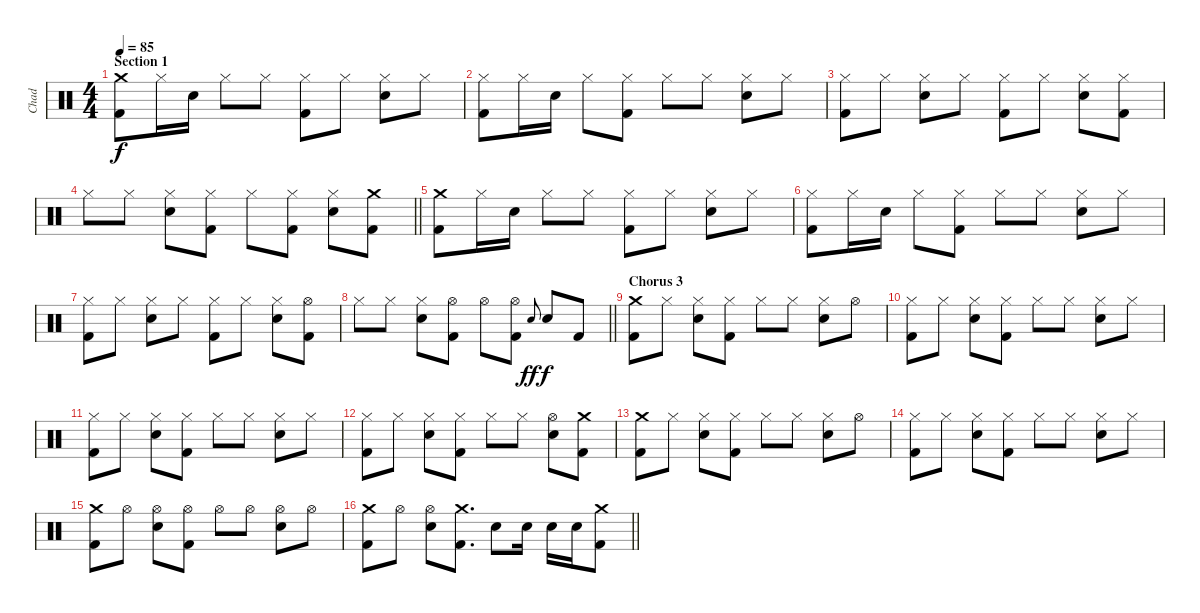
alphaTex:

\track ("Chad" "Chad") {instrument percussion}
\staff {score}
\articulation defaults
\ts (4 4)
\section ("" "Section 1")
\tempo 85
\clef neutral
\ks c
("Crash medium (hit)" "Kick (hit) 2").8{dy f} "Hi-Hat (closed)".16 "Electric Snare (hit)".16 "Hi-Hat (closed)".8 "Hi-Hat (closed)".8 ("Hi-Hat (closed)" "Kick (hit) 2").8 "Hi-Hat (closed)".8 ("Electric Snare (hit)" "Hi-Hat (closed)").8 "Hi-Hat (closed)".8 |
("Hi-Hat (closed)" "Kick (hit) 2").8 "Hi-Hat (closed)".16 "Electric Snare (hit)".16 "Hi-Hat (closed)".8 ("Hi-Hat (closed)" "Kick (hit) 2").8 "Hi-Hat (closed)".8 "Hi-Hat (closed)".8 ("Electric Snare (hit)" "Hi-Hat (closed)").8 "Hi-Hat (closed)".8 |
("Hi-Hat (closed)" "Kick (hit) 2").8 "Hi-Hat (closed)".8 ("Electric Snare (hit)" "Hi-Hat (closed)").8 "Hi-Hat (closed)".8 ("Hi-Hat (closed)" "Kick (hit) 2").8 "Hi-Hat (closed)".8 ("Electric Snare (hit)" "Hi-Hat (closed)").8 ("Hi-Hat (closed)" "Kick (hit) 2").8 |
\barLineRight lightlight "Hi-Hat (closed)".8 "Hi-Hat (closed)".8
("Electric Snare (hit)" "Hi-Hat (closed)").8 ("Hi-Hat (closed)" "Kick (hit) 2").8 "Hi-Hat (closed)".8 ("Hi-Hat (closed)" "Kick (hit) 2").8 ("Electric Snare (hit)" "Hi-Hat (closed)").8 ("Crash medium (hit)" "Kick (hit) 2").8 |
("Crash medium (hit)" "Kick (hit) 2").8 "Hi-Hat (closed)".16 "Electric Snare (hit)".16 "Hi-Hat (closed)".8 "Hi-Hat (closed)".8 ("Hi-Hat (closed)" "Kick (hit) 2").8 "Hi-Hat (closed)".8 ("Electric Snare (hit)" "Hi-Hat (closed)").8 "Hi-Hat (closed)".8 |
("Hi-Hat (closed)" "Kick (hit) 2").8 "Hi-Hat (closed)".16 "Electric Snare (hit)".16 "Hi-Hat (closed)".8 ("Hi-Hat (closed)" "Kick (hit) 2").8 "Hi-Hat (closed)".8 "Hi-Hat (closed)".8 ("Electric Snare (hit)" "Hi-Hat (closed)").8 "Hi-Hat (closed)".8 |
("Hi-Hat (closed)" "Kick (hit) 2").8 "Hi-Hat (closed)".8 ("Electric Snare (hit)" "Hi-Hat (closed)").8 "Hi-Hat (closed)".8 ("Hi-Hat (closed)" "Kick (hit) 2").8 "Hi-Hat (closed)".8 ("Electric Snare (hit)" "Hi-Hat (closed)").8 ("Hi-Hat (open)" "Kick (hit) 2").8 |
\barLineRight lightlight "Hi-Hat (closed)".8 "Hi-Hat (closed)".8
("Electric Snare (hit)" "Hi-Hat (closed)").8 ("Hi-Hat (open)" "Kick (hit) 2").8 "Hi-Hat (open)".8 ("Hi-Hat (open)" "Kick (hit) 2").8 "Electric Snare (hit)".8{gr onbeat dy ff} "Electric Snare (hit)".8{dy f} "Kick (hit) 2".8 |
\section ("" "Chorus 3")
("Crash medium (hit)" "Kick (hit) 2").8 "Hi-Hat (closed)".8 ("Electric Snare (hit)" "Hi-Hat (closed)").8 ("Hi-Hat (closed)" "Kick (hit) 2").8 "Hi-Hat (closed)".8 "Hi-Hat (closed)".8 ("Electric Snare (hit)" "Hi-Hat (closed)").8 "Hi-Hat (open)".8 |
("Hi-Hat (closed)" "Kick (hit) 2").8 "Hi-Hat (closed)".8 ("Electric Snare (hit)" "Hi-Hat (closed)").8 ("Hi-Hat (closed)" "Kick (hit) 2").8 "Hi-Hat (closed)".8 "Hi-Hat (closed)".8 ("Electric Snare (hit)" "Hi-Hat (closed)").8 "Hi-Hat (closed)".8 |
("Hi-Hat (closed)" "Kick (hit) 2").8 "Hi-Hat (closed)".8 ("Electric Snare (hit)" "Hi-Hat (closed)").8 ("Hi-Hat (closed)" "Kick (hit) 2").8 "Hi-Hat (closed)".8 "Hi-Hat (closed)".8 ("Electric Snare (hit)" "Hi-Hat (closed)").8 "Hi-Hat (closed)".8 |
("Hi-Hat (closed)" "Kick (hit) 2").8 "Hi-Hat (closed)".8 ("Electric Snare (hit)" "Hi-Hat (closed)").8 ("Hi-Hat (closed)" "Kick (hit) 2").8 "Hi-Hat (closed)".8 "Hi-Hat (closed)".8 ("Electric Snare (hit)" "Hi-Hat (open)").8 ("Crash medium (hit)" "Kick (hit) 2").8 |
("Crash medium (hit)" "Kick (hit) 2").8 "Hi-Hat (closed)".8 ("Electric Snare (hit)" "Hi-Hat (closed)").8 ("Hi-Hat (closed)" "Kick (hit) 2").8 "Hi-Hat (closed)".8 "Hi-Hat (closed)".8 ("Electric Snare (hit)" "Hi-Hat (closed)").8 "Hi-Hat (open)".8 |
("Hi-Hat (closed)" "Kick (hit) 2").8 "Hi-Hat (closed)".8 ("Electric Snare (hit)" "Hi-Hat (closed)").8 ("Hi-Hat (closed)" "Kick (hit) 2").8 "Hi-Hat (closed)".8 "Hi-Hat (closed)".8 ("Electric Snare (hit)" "Hi-Hat (closed)").8 "Hi-Hat (closed)".8 |
("Crash medium (hit)" "Kick (hit) 2").8 "Hi-Hat (open)".8 ("Electric Snare (hit)" "Hi-Hat (open)").8 ("Hi-Hat (open)" "Kick (hit) 2").8 "Hi-Hat (open)".8 "Hi-Hat (open)".8 ("Electric Snare (hit)" "Hi-Hat (open)").8 "Hi-Hat (open)".8 |
\barLineRight lightlight
("Crash medium (hit)" "Kick (hit) 2").8 "Hi-Hat (open)".8 ("Electric Snare (hit)" "Hi-Hat (open)").8 ("Crash medium (hit)" "Kick (hit) 2").8{d} "Electric Snare (hit)".8 "Electric Snare (hit)".16 "Electric Snare (hit)".16 "Electric Snare (hit)".16 ("Crash medium (hit)" "Kick (hit) 2").8
